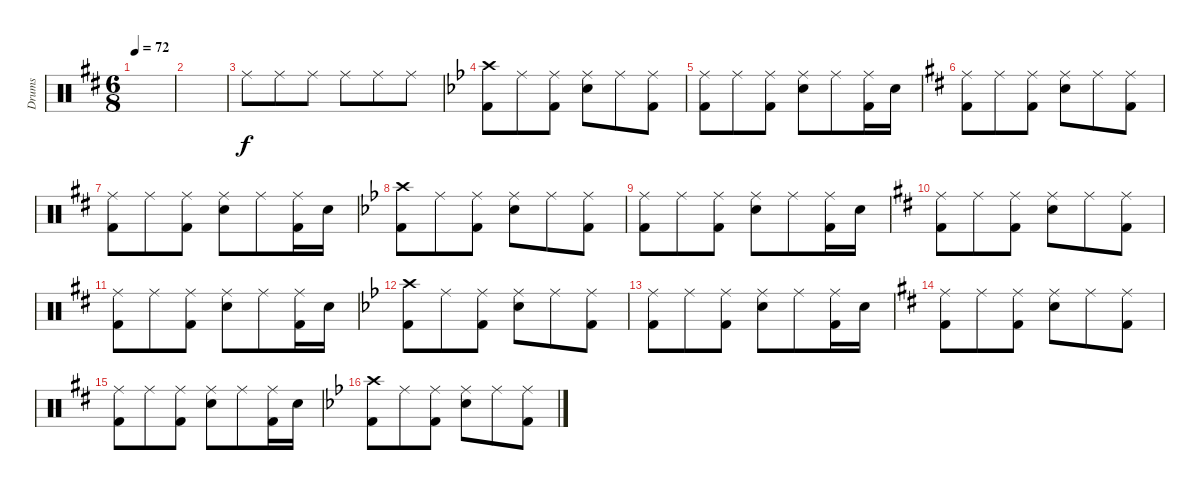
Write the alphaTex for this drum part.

\track ("Drums" "Drums") {instrument percussion}
\staff {score}
\articulation defaults
\ts (6 8)
\tempo 72
\clef neutral
\ks d
|
|
"Ride (middle)".8 "Ride (middle)".8 "Ride (middle)".8 "Ride (middle)".8 "Ride (middle)".8 "Ride (middle)".8 |
\ks bb
("Crash high (hit)" "Kick (hit) 2").8 "Ride (middle)".8 ("Ride (middle)" "Kick (hit) 2").8 ("Ride (middle)" "Electric Snare (hit)").8 "Ride (middle)".8 ("Ride (middle)" "Kick (hit) 2").8 |
("Ride (middle)" "Kick (hit) 2").8 "Ride (middle)".8 ("Ride (middle)" "Kick (hit) 2").8 ("Ride (middle)" "Electric Snare (hit)").8 "Ride (middle)".8 ("Ride (middle)" "Kick (hit) 2").16 "Electric Snare (hit)".16 |
\ks d
("Ride (middle)" "Kick (hit) 2").8 "Ride (middle)".8 ("Ride (middle)" "Kick (hit) 2").8 ("Ride (middle)" "Electric Snare (hit)").8 "Ride (middle)".8 ("Ride (middle)" "Kick (hit) 2").8 |
("Ride (middle)" "Kick (hit) 2").8 "Ride (middle)".8 ("Ride (middle)" "Kick (hit) 2").8 ("Ride (middle)" "Electric Snare (hit)").8 "Ride (middle)".8 ("Ride (middle)" "Kick (hit) 2").16 "Electric Snare (hit)".16 |
\ks bb
("Crash high (hit)" "Kick (hit) 2").8 "Ride (middle)".8 ("Ride (middle)" "Kick (hit) 2").8 ("Ride (middle)" "Electric Snare (hit)").8 "Ride (middle)".8 ("Ride (middle)" "Kick (hit) 2").8 |
("Ride (middle)" "Kick (hit) 2").8 "Ride (middle)".8 ("Ride (middle)" "Kick (hit) 2").8 ("Ride (middle)" "Electric Snare (hit)").8 "Ride (middle)".8 ("Ride (middle)" "Kick (hit) 2").16 "Electric Snare (hit)".16 |
\ks d
("Ride (middle)" "Kick (hit) 2").8 "Ride (middle)".8 ("Ride (middle)" "Kick (hit) 2").8 ("Ride (middle)" "Electric Snare (hit)").8 "Ride (middle)".8 ("Ride (middle)" "Kick (hit) 2").8 |
("Ride (middle)" "Kick (hit) 2").8 "Ride (middle)".8 ("Ride (middle)" "Kick (hit) 2").8 ("Ride (middle)" "Electric Snare (hit)").8 "Ride (middle)".8 ("Ride (middle)" "Kick (hit) 2").16 "Electric Snare (hit)".16 |
\ks bb
("Crash high (hit)" "Kick (hit) 2").8 "Ride (middle)".8 ("Ride (middle)" "Kick (hit) 2").8 ("Ride (middle)" "Electric Snare (hit)").8 "Ride (middle)".8 ("Ride (middle)" "Kick (hit) 2").8 |
("Ride (middle)" "Kick (hit) 2").8 "Ride (middle)".8 ("Ride (middle)" "Kick (hit) 2").8 ("Ride (middle)" "Electric Snare (hit)").8 "Ride (middle)".8 ("Ride (middle)" "Kick (hit) 2").16 "Electric Snare (hit)".16 |
\ks d
("Ride (middle)" "Kick (hit) 2").8 "Ride (middle)".8 ("Ride (middle)" "Kick (hit) 2").8 ("Ride (middle)" "Electric Snare (hit)").8 "Ride (middle)".8 ("Ride (middle)" "Kick (hit) 2").8 |
("Ride (middle)" "Kick (hit) 2").8 "Ride (middle)".8 ("Ride (middle)" "Kick (hit) 2").8 ("Ride (middle)" "Electric Snare (hit)").8 "Ride (middle)".8 ("Ride (middle)" "Kick (hit) 2").16 "Electric Snare (hit)".16 |
\ks bb
("Crash high (hit)" "Kick (hit) 2").8 "Ride (middle)".8 ("Ride (middle)" "Kick (hit) 2").8 ("Ride (middle)" "Electric Snare (hit)").8 "Ride (middle)".8 ("Ride (middle)" "Kick (hit) 2").8
